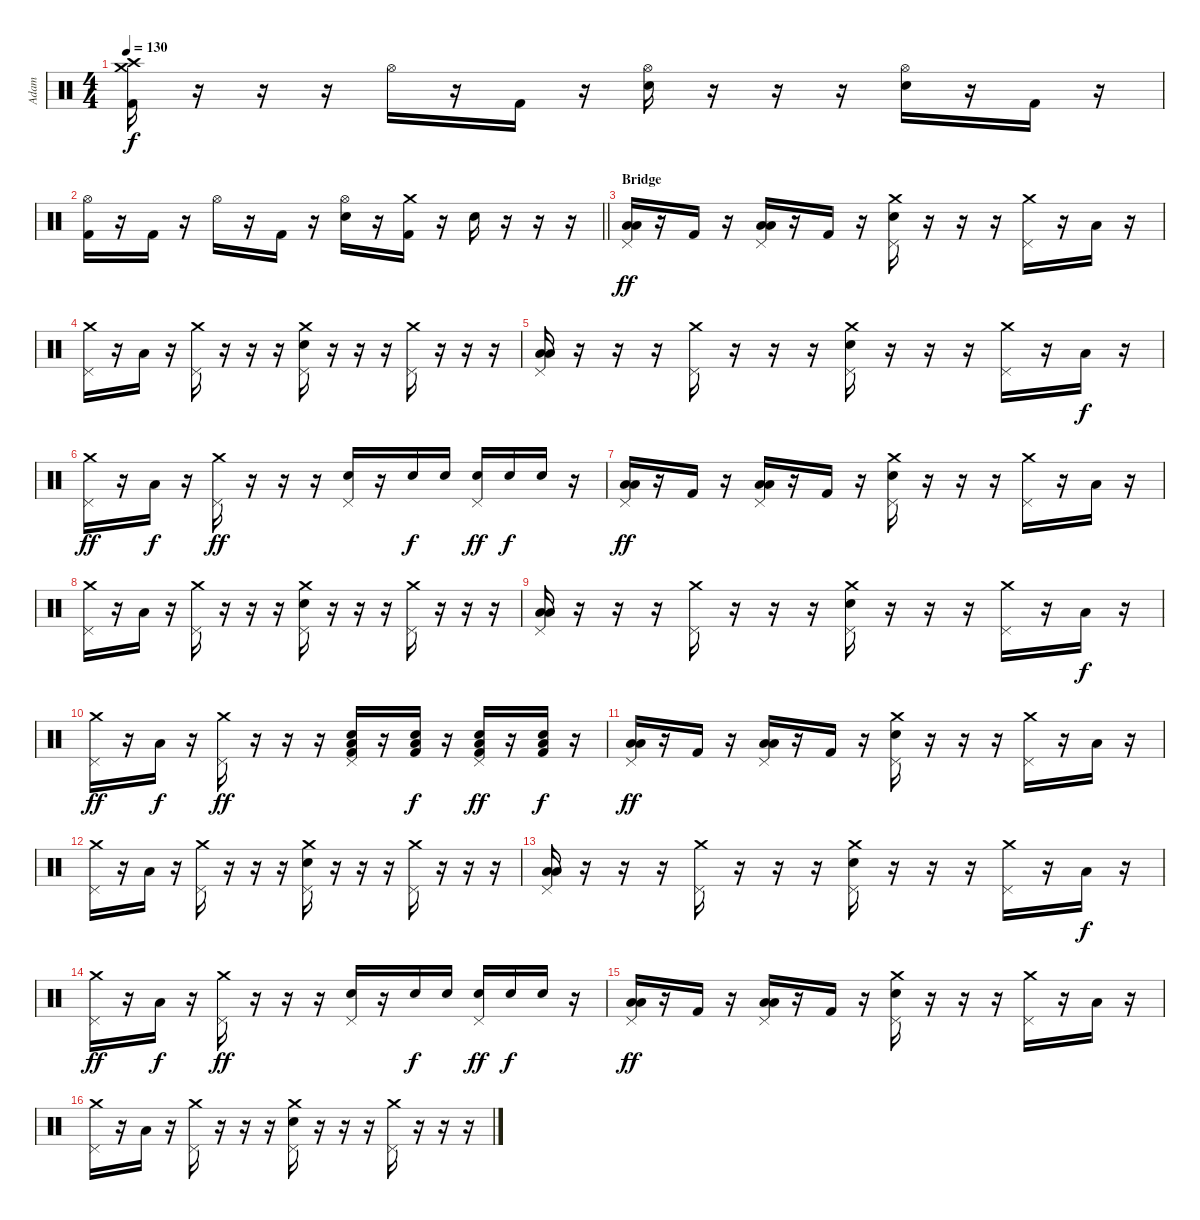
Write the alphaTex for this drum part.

\track ("Adam" "Adam") {instrument percussion}
\staff {score}
\articulation defaults
\ts (4 4)
\tempo 130
\clef neutral
\ks c
("Crash high (hit)" "Crash medium (hit)" "Kick (hit) 2").16{dy f} r.16 r.16 r.16 "Hi-Hat (open)".16 r.16 "Kick (hit) 2".16 r.16 ("Hi-Hat (open)" "Snare (hit) 2").16 r.16 r.16 r.16 ("Hi-Hat (open)" "Snare (hit) 2").16 r.16 "Kick (hit) 2".16 r.16 |
\barLineRight lightlight
("Hi-Hat (open)" "Kick (hit) 2").16 r.16 "Kick (hit) 2".16 r.16 "Hi-Hat (open)".16 r.16 "Kick (hit) 2".16 r.16 ("Hi-Hat (open)" "Snare (hit) 2").16 r.16 ("Crash medium (hit)" "Kick (hit) 2").16 r.16 "Snare (hit) 2".16 r.16 r.16 r.16 |
\section ("" "Bridge")
("Pedal Hi-Hat (hit)" "Low Tom (hit)" "Low Floor Tom (hit)").16{dy ff} r.16 "Kick (hit) 2".16 r.16 ("Pedal Hi-Hat (hit)" "Low Tom (hit)" "Low Floor Tom (hit)").16 r.16 "Kick (hit) 2".16 r.16 ("Crash medium (hit)" "Pedal Hi-Hat (hit)" "Snare (hit) 2").16 r.16 r.16 r.16 ("Crash medium (hit)" "Pedal Hi-Hat (hit)").16 r.16 "Low Tom (hit)".16 r.16 |
("Crash medium (hit)" "Pedal Hi-Hat (hit)").16 r.16 "Low Floor Tom (hit)".16 r.16 ("Crash medium (hit)" "Pedal Hi-Hat (hit)").16 r.16 r.16 r.16 ("Crash medium (hit)" "Pedal Hi-Hat (hit)" "Snare (hit) 2").16 r.16 r.16 r.16 ("Crash medium (hit)" "Pedal Hi-Hat (hit)").16 r.16 r.16 r.16 |
("Pedal Hi-Hat (hit)" "Low Tom (hit)" "Low Floor Tom (hit)").16 r.16 r.16 r.16 ("Crash medium (hit)" "Pedal Hi-Hat (hit)").16 r.16 r.16 r.16 ("Crash medium (hit)" "Pedal Hi-Hat (hit)" "Snare (hit) 2").16 r.16 r.16 r.16 ("Crash medium (hit)" "Pedal Hi-Hat (hit)").16 r.16 "Low Tom (hit)".16{dy f} r.16 |
("Crash medium (hit)" "Pedal Hi-Hat (hit)").16{dy ff} r.16 "Low Floor Tom (hit)".16{dy f} r.16 ("Crash medium (hit)" "Pedal Hi-Hat (hit)").16{dy ff} r.16 r.16 r.16 ("Pedal Hi-Hat (hit)" "Snare (hit) 2").16 r.16 "Snare (hit) 2".16{dy f} "Snare (hit) 2".16 ("Pedal Hi-Hat (hit)" "Snare (hit) 2").16{dy ff} "Snare (hit) 2".16{dy f} "Snare (hit) 2".16 r.16 |
("Pedal Hi-Hat (hit)" "Low Tom (hit)" "Low Floor Tom (hit)").16{dy ff} r.16 "Kick (hit) 2".16 r.16 ("Pedal Hi-Hat (hit)" "Low Tom (hit)" "Low Floor Tom (hit)").16 r.16 "Kick (hit) 2".16 r.16 ("Crash medium (hit)" "Pedal Hi-Hat (hit)" "Snare (hit) 2").16 r.16 r.16 r.16 ("Crash medium (hit)" "Pedal Hi-Hat (hit)").16 r.16 "Low Tom (hit)".16 r.16 |
("Crash medium (hit)" "Pedal Hi-Hat (hit)").16 r.16 "Low Floor Tom (hit)".16 r.16 ("Crash medium (hit)" "Pedal Hi-Hat (hit)").16 r.16 r.16 r.16 ("Crash medium (hit)" "Pedal Hi-Hat (hit)" "Snare (hit) 2").16 r.16 r.16 r.16 ("Crash medium (hit)" "Pedal Hi-Hat (hit)").16 r.16 r.16 r.16 |
("Pedal Hi-Hat (hit)" "Low Tom (hit)" "Low Floor Tom (hit)").16 r.16 r.16 r.16 ("Crash medium (hit)" "Pedal Hi-Hat (hit)").16 r.16 r.16 r.16 ("Crash medium (hit)" "Pedal Hi-Hat (hit)" "Snare (hit) 2").16 r.16 r.16 r.16 ("Crash medium (hit)" "Pedal Hi-Hat (hit)").16 r.16 "Low Tom (hit)".16{dy f} r.16 |
("Crash medium (hit)" "Pedal Hi-Hat (hit)").16{dy ff} r.16 "Low Floor Tom (hit)".16{dy f} r.16 ("Crash medium (hit)" "Pedal Hi-Hat (hit)").16{dy ff} r.16 r.16 r.16 ("Pedal Hi-Hat (hit)" "Snare (hit) 2" "Low Floor Tom (hit)" "Kick (hit) 2").16 r.16 ("Snare (hit) 2" "Low Floor Tom (hit)" "Kick (hit) 2").16{dy f} r.16 ("Pedal Hi-Hat (hit)" "Snare (hit) 2" "Low Floor Tom (hit)" "Kick (hit) 2").16{dy ff} r.16 ("Snare (hit) 2" "Low Floor Tom (hit)" "Kick (hit) 2").16{dy f} r.16 |
("Pedal Hi-Hat (hit)" "Low Tom (hit)" "Low Floor Tom (hit)").16{dy ff} r.16 "Kick (hit) 2".16 r.16 ("Pedal Hi-Hat (hit)" "Low Tom (hit)" "Low Floor Tom (hit)").16 r.16 "Kick (hit) 2".16 r.16 ("Crash medium (hit)" "Pedal Hi-Hat (hit)" "Snare (hit) 2").16 r.16 r.16 r.16 ("Crash medium (hit)" "Pedal Hi-Hat (hit)").16 r.16 "Low Tom (hit)".16 r.16 |
("Crash medium (hit)" "Pedal Hi-Hat (hit)").16 r.16 "Low Floor Tom (hit)".16 r.16 ("Crash medium (hit)" "Pedal Hi-Hat (hit)").16 r.16 r.16 r.16 ("Crash medium (hit)" "Pedal Hi-Hat (hit)" "Snare (hit) 2").16 r.16 r.16 r.16 ("Crash medium (hit)" "Pedal Hi-Hat (hit)").16 r.16 r.16 r.16 |
("Pedal Hi-Hat (hit)" "Low Tom (hit)" "Low Floor Tom (hit)").16 r.16 r.16 r.16 ("Crash medium (hit)" "Pedal Hi-Hat (hit)").16 r.16 r.16 r.16 ("Crash medium (hit)" "Pedal Hi-Hat (hit)" "Snare (hit) 2").16 r.16 r.16 r.16 ("Crash medium (hit)" "Pedal Hi-Hat (hit)").16 r.16 "Low Tom (hit)".16{dy f} r.16 |
("Crash medium (hit)" "Pedal Hi-Hat (hit)").16{dy ff} r.16 "Low Floor Tom (hit)".16{dy f} r.16 ("Crash medium (hit)" "Pedal Hi-Hat (hit)").16{dy ff} r.16 r.16 r.16 ("Pedal Hi-Hat (hit)" "Snare (hit) 2").16 r.16 "Snare (hit) 2".16{dy f} "Snare (hit) 2".16 ("Pedal Hi-Hat (hit)" "Snare (hit) 2").16{dy ff} "Snare (hit) 2".16{dy f} "Snare (hit) 2".16 r.16 |
("Pedal Hi-Hat (hit)" "Low Tom (hit)" "Low Floor Tom (hit)").16{dy ff} r.16 "Kick (hit) 2".16 r.16 ("Pedal Hi-Hat (hit)" "Low Tom (hit)" "Low Floor Tom (hit)").16 r.16 "Kick (hit) 2".16 r.16 ("Crash medium (hit)" "Pedal Hi-Hat (hit)" "Snare (hit) 2").16 r.16 r.16 r.16 ("Crash medium (hit)" "Pedal Hi-Hat (hit)").16 r.16 "Low Tom (hit)".16 r.16 |
("Crash medium (hit)" "Pedal Hi-Hat (hit)").16 r.16 "Low Floor Tom (hit)".16 r.16 ("Crash medium (hit)" "Pedal Hi-Hat (hit)").16 r.16 r.16 r.16 ("Crash medium (hit)" "Pedal Hi-Hat (hit)" "Snare (hit) 2").16 r.16 r.16 r.16 ("Crash medium (hit)" "Pedal Hi-Hat (hit)").16 r.16 r.16 r.16
